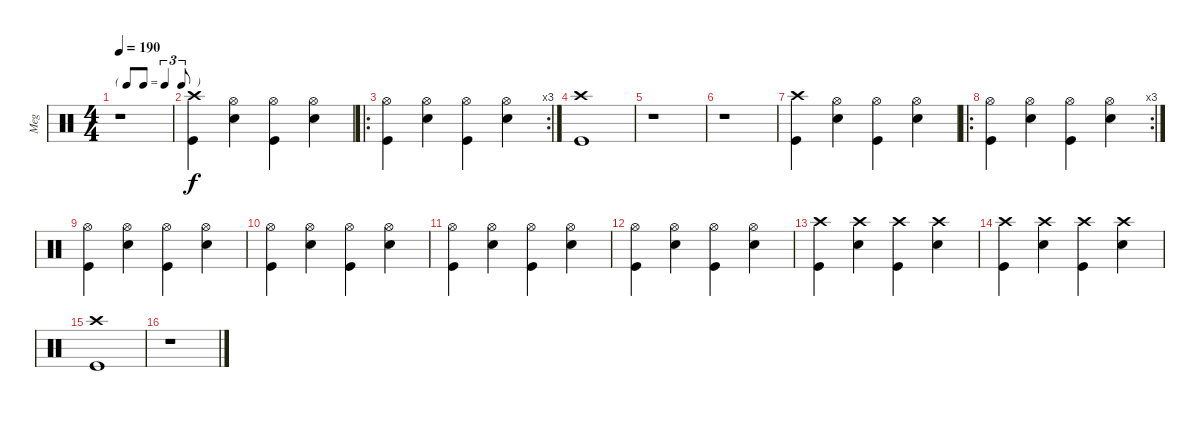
\track ("Meg" "Meg") {instrument percussion}
\staff {score}
\articulation defaults
\ts (4 4)
\tf triplet8th
\tempo 190
\clef neutral
\ks c
r.1{dy f} |
("Crash high (hit)" "Kick (hit)").4 ("Hi-Hat (open)" "Electric Snare (hit)").4 ("Hi-Hat (open)" "Kick (hit)").4 ("Hi-Hat (open)" "Electric Snare (hit)").4 |
\ro
\rc 3
("Hi-Hat (open)" "Kick (hit)").4 ("Hi-Hat (open)" "Electric Snare (hit)").4 ("Hi-Hat (open)" "Kick (hit)").4 ("Hi-Hat (open)" "Electric Snare (hit)").4 |
("Crash high (hit)" "Kick (hit)").1 |
r.1 |
r.1 |
("Crash high (hit)" "Kick (hit)").4 ("Hi-Hat (open)" "Electric Snare (hit)").4 ("Hi-Hat (open)" "Kick (hit)").4 ("Hi-Hat (open)" "Electric Snare (hit)").4 |
\ro
\rc 3
("Hi-Hat (open)" "Kick (hit)").4 ("Hi-Hat (open)" "Electric Snare (hit)").4 ("Hi-Hat (open)" "Kick (hit)").4 ("Hi-Hat (open)" "Electric Snare (hit)").4 |
("Hi-Hat (open)" "Kick (hit)").4 ("Hi-Hat (open)" "Electric Snare (hit)").4 ("Hi-Hat (open)" "Kick (hit)").4 ("Hi-Hat (open)" "Electric Snare (hit)").4 |
("Hi-Hat (open)" "Kick (hit)").4 ("Hi-Hat (open)" "Electric Snare (hit)").4 ("Hi-Hat (open)" "Kick (hit)").4 ("Hi-Hat (open)" "Electric Snare (hit)").4 |
("Hi-Hat (open)" "Kick (hit)").4 ("Hi-Hat (open)" "Electric Snare (hit)").4 ("Hi-Hat (open)" "Kick (hit)").4 ("Hi-Hat (open)" "Electric Snare (hit)").4 |
("Hi-Hat (open)" "Kick (hit)").4 ("Hi-Hat (open)" "Electric Snare (hit)").4 ("Hi-Hat (open)" "Kick (hit)").4 ("Hi-Hat (open)" "Electric Snare (hit)").4 |
("Crash high (hit)" "Kick (hit)").4 ("Crash high (hit)" "Electric Snare (hit)").4 ("Crash high (hit)" "Kick (hit)").4 ("Crash high (hit)" "Electric Snare (hit)").4 |
("Crash high (hit)" "Kick (hit)").4 ("Crash high (hit)" "Electric Snare (hit)").4 ("Crash high (hit)" "Kick (hit)").4 ("Crash high (hit)" "Electric Snare (hit)").4 |
("Crash high (hit)" "Kick (hit)").1 |
r.1
